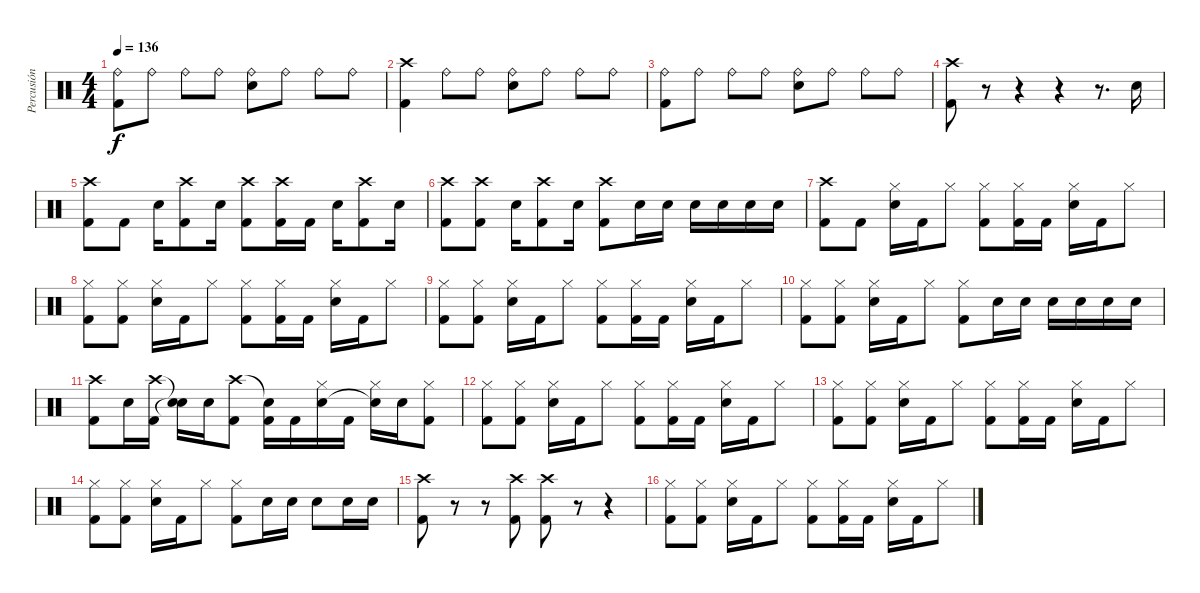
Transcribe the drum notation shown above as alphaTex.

\track ("Percusión" "Percusión") {instrument percussion}
\staff {score}
\articulation defaults
\ts (4 4)
\tempo 136
\clef neutral
\ks c
("Ride (bell)" "Kick (hit) 2").8{dy f} "Ride (bell)".8 "Ride (bell)".8 "Ride (bell)".8 ("Ride (bell)" "Electric Snare (hit)").8 "Ride (bell)".8 "Ride (bell)".8 "Ride (bell)".8 |
("Crash high (hit)" "Kick (hit) 2").4 "Ride (bell)".8 "Ride (bell)".8 ("Ride (bell)" "Electric Snare (hit)").8 "Ride (bell)".8 "Ride (bell)".8 "Ride (bell)".8 |
("Ride (bell)" "Kick (hit) 2").8 "Ride (bell)".8 "Ride (bell)".8 "Ride (bell)".8 ("Ride (bell)" "Electric Snare (hit)").8 "Ride (bell)".8 "Ride (bell)".8 "Ride (bell)".8 |
("Crash high (hit)" "Kick (hit) 2").8 r.8 r.4 r.4 r.8{d} "Electric Snare (hit)".16 |
("Crash high (hit)" "Kick (hit) 2").8 "Kick (hit) 2".8 "Electric Snare (hit)".16 ("Crash high (hit)" "Kick (hit) 2").8 "Electric Snare (hit)".16 ("Crash high (hit)" "Kick (hit) 2").8 ("Crash high (hit)" "Kick (hit) 2").16 "Kick (hit) 2".16 "Electric Snare (hit)".16 ("Crash high (hit)" "Kick (hit) 2").8 "Electric Snare (hit)".16 |
("Crash high (hit)" "Kick (hit) 2").8 ("Crash high (hit)" "Kick (hit) 2").8 "Electric Snare (hit)".16 ("Crash high (hit)" "Kick (hit) 2").8 "Electric Snare (hit)".16 ("Crash high (hit)" "Kick (hit) 2").8 "Electric Snare (hit)".16 "Electric Snare (hit)".16 "Electric Snare (hit)".16 "Electric Snare (hit)".16 "Electric Snare (hit)".16 "Electric Snare (hit)".16 |
("Crash high (hit)" "Kick (hit) 2").8 "Kick (hit) 2".8 ("Hi-Hat (closed)" "Electric Snare (hit)").16 "Kick (hit) 2".16 "Hi-Hat (closed)".8 ("Hi-Hat (closed)" "Kick (hit) 2").8 ("Hi-Hat (closed)" "Kick (hit) 2").16 "Kick (hit) 2".16 ("Hi-Hat (closed)" "Electric Snare (hit)").16 "Kick (hit) 2".16 "Hi-Hat (closed)".8 |
("Hi-Hat (closed)" "Kick (hit) 2").8 ("Hi-Hat (closed)" "Kick (hit) 2").8 ("Hi-Hat (closed)" "Electric Snare (hit)").16 "Kick (hit) 2".16 "Hi-Hat (closed)".8 ("Hi-Hat (closed)" "Kick (hit) 2").8 ("Hi-Hat (closed)" "Kick (hit) 2").16 "Kick (hit) 2".16 ("Hi-Hat (closed)" "Electric Snare (hit)").16 "Kick (hit) 2".16 "Hi-Hat (closed)".8 |
("Hi-Hat (closed)" "Kick (hit) 2").8 ("Hi-Hat (closed)" "Kick (hit) 2").8 ("Hi-Hat (closed)" "Electric Snare (hit)").16 "Kick (hit) 2".16 "Hi-Hat (closed)".8 ("Hi-Hat (closed)" "Kick (hit) 2").8 ("Hi-Hat (closed)" "Kick (hit) 2").16 "Kick (hit) 2".16 ("Hi-Hat (closed)" "Electric Snare (hit)").16 "Kick (hit) 2".16 "Hi-Hat (closed)".8 |
("Hi-Hat (closed)" "Kick (hit) 2").8 ("Hi-Hat (closed)" "Kick (hit) 2").8 ("Hi-Hat (closed)" "Electric Snare (hit)").16 "Kick (hit) 2".16 "Hi-Hat (closed)".8 ("Hi-Hat (closed)" "Kick (hit) 2").8 "Electric Snare (hit)".16 "Electric Snare (hit)".16 "Electric Snare (hit)".16 "Electric Snare (hit)".16 "Electric Snare (hit)".16 "Electric Snare (hit)".16 |
("Crash high (hit)" "Kick (hit) 2").8 "Electric Snare (hit)".16 ("Crash high (hit)" "Kick (hit) 2").16 ("Snare (hit)"{t} "Snare (hit)"{t}).16 "Electric Snare (hit)".16 ("Crash high (hit)" "Kick (hit) 2").8 ("Snare (hit)"{t} "Kick (hit) 2").16 "Kick (hit) 2".16 ("Hi-Hat (closed)" "Electric Snare (hit)").16 "Kick (hit) 2".16 ("Hi-Hat (closed)" "Snare (hit)"{t}).16 "Electric Snare (hit)".16 ("Hi-Hat (closed)" "Kick (hit) 2").8 |
("Hi-Hat (closed)" "Kick (hit) 2").8 ("Hi-Hat (closed)" "Kick (hit) 2").8 ("Hi-Hat (closed)" "Electric Snare (hit)").16 "Kick (hit) 2".16 "Hi-Hat (closed)".8 ("Hi-Hat (closed)" "Kick (hit) 2").8 ("Hi-Hat (closed)" "Kick (hit) 2").16 "Kick (hit) 2".16 ("Hi-Hat (closed)" "Electric Snare (hit)").16 "Kick (hit) 2".16 "Hi-Hat (closed)".8 |
("Hi-Hat (closed)" "Kick (hit) 2").8 ("Hi-Hat (closed)" "Kick (hit) 2").8 ("Hi-Hat (closed)" "Electric Snare (hit)").16 "Kick (hit) 2".16 "Hi-Hat (closed)".8 ("Hi-Hat (closed)" "Kick (hit) 2").8 ("Hi-Hat (closed)" "Kick (hit) 2").16 "Kick (hit) 2".16 ("Hi-Hat (closed)" "Electric Snare (hit)").16 "Kick (hit) 2".16 "Hi-Hat (closed)".8 |
("Hi-Hat (closed)" "Kick (hit) 2").8 ("Hi-Hat (closed)" "Kick (hit) 2").8 ("Hi-Hat (closed)" "Electric Snare (hit)").16 "Kick (hit) 2".16 "Hi-Hat (closed)".8 ("Hi-Hat (closed)" "Kick (hit) 2").8 "Electric Snare (hit)".16 "Electric Snare (hit)".16 "Electric Snare (hit)".8 "Electric Snare (hit)".16 "Electric Snare (hit)".16 |
("Crash high (hit)" "Kick (hit) 2").8 r.8 r.8 ("Crash high (hit)" "Kick (hit) 2").8 ("Crash high (hit)" "Kick (hit) 2").8 r.8 r.4 |
("Hi-Hat (closed)" "Kick (hit) 2").8 ("Hi-Hat (closed)" "Kick (hit) 2").8 ("Hi-Hat (closed)" "Electric Snare (hit)").16 "Kick (hit) 2".16 "Hi-Hat (closed)".8 ("Hi-Hat (closed)" "Kick (hit) 2").8 ("Hi-Hat (closed)" "Kick (hit) 2").16 "Kick (hit) 2".16 ("Hi-Hat (closed)" "Electric Snare (hit)").16 "Kick (hit) 2".16 "Hi-Hat (closed)".8
